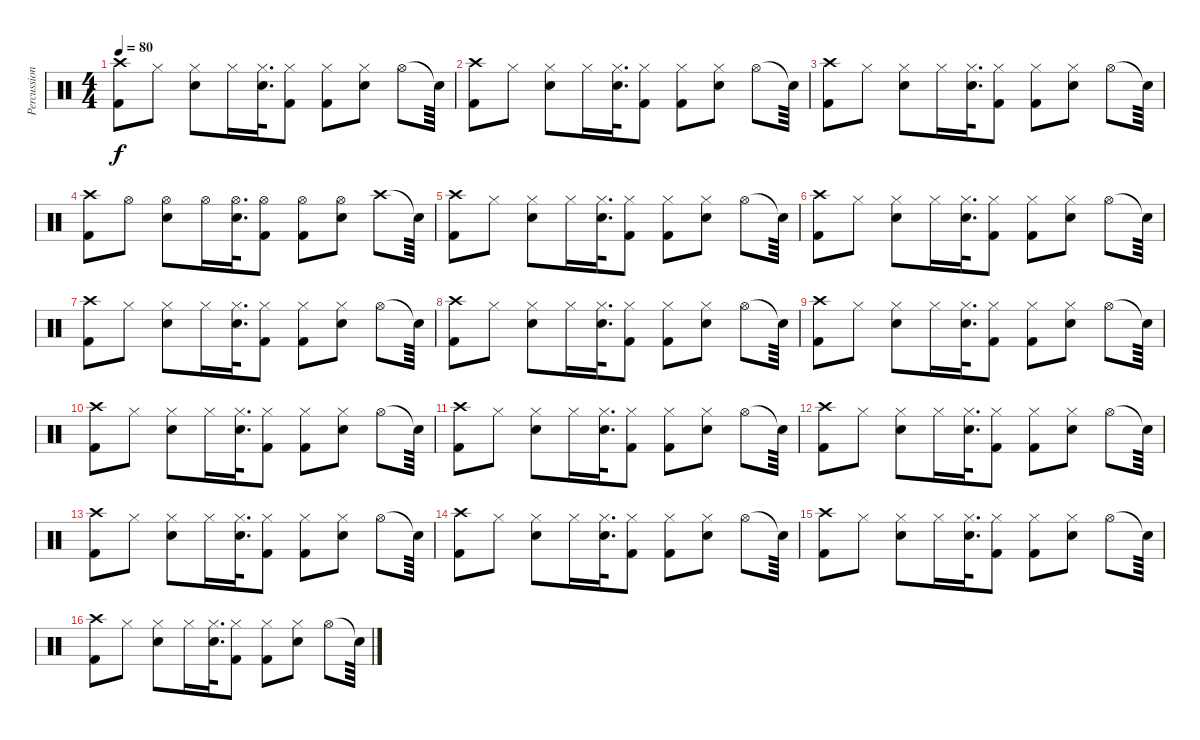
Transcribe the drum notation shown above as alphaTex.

\track ("Percussion" "Percussion") {instrument percussion}
\staff {score}
\articulation defaults
\ts (4 4)
\tempo 80
\clef neutral
\ks c
("Crash high (hit)" "Kick (hit) 2").8{dy f} "Hi-Hat (closed)".8 ("Hi-Hat (closed)" "Snare (hit) 2").8 "Hi-Hat (closed)".16 ("Hi-Hat (closed)" "Snare (hit) 2").32{d} ("Hi-Hat (closed)" "Kick (hit) 2").8 ("Hi-Hat (closed)" "Kick (hit) 2").8 ("Hi-Hat (closed)" "Snare (hit) 2").8 "Hi-Hat (open)".8 "Snare (hit)"{t}.64 |
("Crash high (hit)" "Kick (hit) 2").8 "Hi-Hat (closed)".8 ("Hi-Hat (closed)" "Snare (hit) 2").8 "Hi-Hat (closed)".16 ("Hi-Hat (closed)" "Snare (hit) 2").32{d} ("Hi-Hat (closed)" "Kick (hit) 2").8 ("Hi-Hat (closed)" "Kick (hit) 2").8 ("Hi-Hat (closed)" "Snare (hit) 2").8 "Hi-Hat (open)".8 "Snare (hit)"{t}.64 |
("Crash high (hit)" "Kick (hit) 2").8 "Hi-Hat (closed)".8 ("Hi-Hat (closed)" "Snare (hit) 2").8 "Hi-Hat (closed)".16 ("Hi-Hat (closed)" "Snare (hit) 2").32{d} ("Hi-Hat (closed)" "Kick (hit) 2").8 ("Hi-Hat (closed)" "Kick (hit) 2").8 ("Hi-Hat (closed)" "Snare (hit) 2").8 "Hi-Hat (open)".8 "Snare (hit)"{t}.64 |
("Crash high (hit)" "Kick (hit) 2").8 "Hi-Hat (open)".8 ("Hi-Hat (open)" "Snare (hit) 2").8 "Hi-Hat (open)".16 ("Hi-Hat (open)" "Snare (hit) 2").32{d} ("Hi-Hat (open)" "Kick (hit) 2").8 ("Hi-Hat (open)" "Kick (hit) 2").8 ("Hi-Hat (open)" "Snare (hit) 2").8 "Crash high (hit)".8 "Snare (hit)"{t}.64 |
("Crash high (hit)" "Kick (hit) 2").8 "Hi-Hat (closed)".8 ("Hi-Hat (closed)" "Snare (hit) 2").8 "Hi-Hat (closed)".16 ("Hi-Hat (closed)" "Snare (hit) 2").32{d} ("Hi-Hat (closed)" "Kick (hit) 2").8 ("Hi-Hat (closed)" "Kick (hit) 2").8 ("Hi-Hat (closed)" "Snare (hit) 2").8 "Hi-Hat (open)".8 "Snare (hit)"{t}.64 |
("Crash high (hit)" "Kick (hit) 2").8 "Hi-Hat (closed)".8 ("Hi-Hat (closed)" "Snare (hit) 2").8 "Hi-Hat (closed)".16 ("Hi-Hat (closed)" "Snare (hit) 2").32{d} ("Hi-Hat (closed)" "Kick (hit) 2").8 ("Hi-Hat (closed)" "Kick (hit) 2").8 ("Hi-Hat (closed)" "Snare (hit) 2").8 "Hi-Hat (open)".8 "Snare (hit)"{t}.64 |
("Crash high (hit)" "Kick (hit) 2").8 "Hi-Hat (closed)".8 ("Hi-Hat (closed)" "Snare (hit) 2").8 "Hi-Hat (closed)".16 ("Hi-Hat (closed)" "Snare (hit) 2").32{d} ("Hi-Hat (closed)" "Kick (hit) 2").8 ("Hi-Hat (closed)" "Kick (hit) 2").8 ("Hi-Hat (closed)" "Snare (hit) 2").8 "Hi-Hat (open)".8 "Snare (hit)"{t}.64 |
("Crash high (hit)" "Kick (hit) 2").8 "Hi-Hat (closed)".8 ("Hi-Hat (closed)" "Snare (hit) 2").8 "Hi-Hat (closed)".16 ("Hi-Hat (closed)" "Snare (hit) 2").32{d} ("Hi-Hat (closed)" "Kick (hit) 2").8 ("Hi-Hat (closed)" "Kick (hit) 2").8 ("Hi-Hat (closed)" "Snare (hit) 2").8 "Hi-Hat (open)".8 "Snare (hit)"{t}.64 |
("Crash high (hit)" "Kick (hit) 2").8 "Hi-Hat (closed)".8 ("Hi-Hat (closed)" "Snare (hit) 2").8 "Hi-Hat (closed)".16 ("Hi-Hat (closed)" "Snare (hit) 2").32{d} ("Hi-Hat (closed)" "Kick (hit) 2").8 ("Hi-Hat (closed)" "Kick (hit) 2").8 ("Hi-Hat (closed)" "Snare (hit) 2").8 "Hi-Hat (open)".8 "Snare (hit)"{t}.64 |
("Crash high (hit)" "Kick (hit) 2").8 "Hi-Hat (closed)".8 ("Hi-Hat (closed)" "Snare (hit) 2").8 "Hi-Hat (closed)".16 ("Hi-Hat (closed)" "Snare (hit) 2").32{d} ("Hi-Hat (closed)" "Kick (hit) 2").8 ("Hi-Hat (closed)" "Kick (hit) 2").8 ("Hi-Hat (closed)" "Snare (hit) 2").8 "Hi-Hat (open)".8 "Snare (hit)"{t}.64 |
("Crash high (hit)" "Kick (hit) 2").8 "Hi-Hat (closed)".8 ("Hi-Hat (closed)" "Snare (hit) 2").8 "Hi-Hat (closed)".16 ("Hi-Hat (closed)" "Snare (hit) 2").32{d} ("Hi-Hat (closed)" "Kick (hit) 2").8 ("Hi-Hat (closed)" "Kick (hit) 2").8 ("Hi-Hat (closed)" "Snare (hit) 2").8 "Hi-Hat (open)".8 "Snare (hit)"{t}.64 |
("Crash high (hit)" "Kick (hit) 2").8 "Hi-Hat (closed)".8 ("Hi-Hat (closed)" "Snare (hit) 2").8 "Hi-Hat (closed)".16 ("Hi-Hat (closed)" "Snare (hit) 2").32{d} ("Hi-Hat (closed)" "Kick (hit) 2").8 ("Hi-Hat (closed)" "Kick (hit) 2").8 ("Hi-Hat (closed)" "Snare (hit) 2").8 "Hi-Hat (open)".8 "Snare (hit)"{t}.64 |
("Crash high (hit)" "Kick (hit) 2").8 "Hi-Hat (closed)".8 ("Hi-Hat (closed)" "Snare (hit) 2").8 "Hi-Hat (closed)".16 ("Hi-Hat (closed)" "Snare (hit) 2").32{d} ("Hi-Hat (closed)" "Kick (hit) 2").8 ("Hi-Hat (closed)" "Kick (hit) 2").8 ("Hi-Hat (closed)" "Snare (hit) 2").8 "Hi-Hat (open)".8 "Snare (hit)"{t}.64 |
("Crash high (hit)" "Kick (hit) 2").8 "Hi-Hat (closed)".8 ("Hi-Hat (closed)" "Snare (hit) 2").8 "Hi-Hat (closed)".16 ("Hi-Hat (closed)" "Snare (hit) 2").32{d} ("Hi-Hat (closed)" "Kick (hit) 2").8 ("Hi-Hat (closed)" "Kick (hit) 2").8 ("Hi-Hat (closed)" "Snare (hit) 2").8 "Hi-Hat (open)".8 "Snare (hit)"{t}.64 |
("Crash high (hit)" "Kick (hit) 2").8 "Hi-Hat (closed)".8 ("Hi-Hat (closed)" "Snare (hit) 2").8 "Hi-Hat (closed)".16 ("Hi-Hat (closed)" "Snare (hit) 2").32{d} ("Hi-Hat (closed)" "Kick (hit) 2").8 ("Hi-Hat (closed)" "Kick (hit) 2").8 ("Hi-Hat (closed)" "Snare (hit) 2").8 "Hi-Hat (open)".8 "Snare (hit)"{t}.64 |
("Crash high (hit)" "Kick (hit) 2").8 "Hi-Hat (closed)".8 ("Hi-Hat (closed)" "Snare (hit) 2").8 "Hi-Hat (closed)".16 ("Hi-Hat (closed)" "Snare (hit) 2").32{d} ("Hi-Hat (closed)" "Kick (hit) 2").8 ("Hi-Hat (closed)" "Kick (hit) 2").8 ("Hi-Hat (closed)" "Snare (hit) 2").8 "Hi-Hat (open)".8 "Snare (hit)"{t}.64
